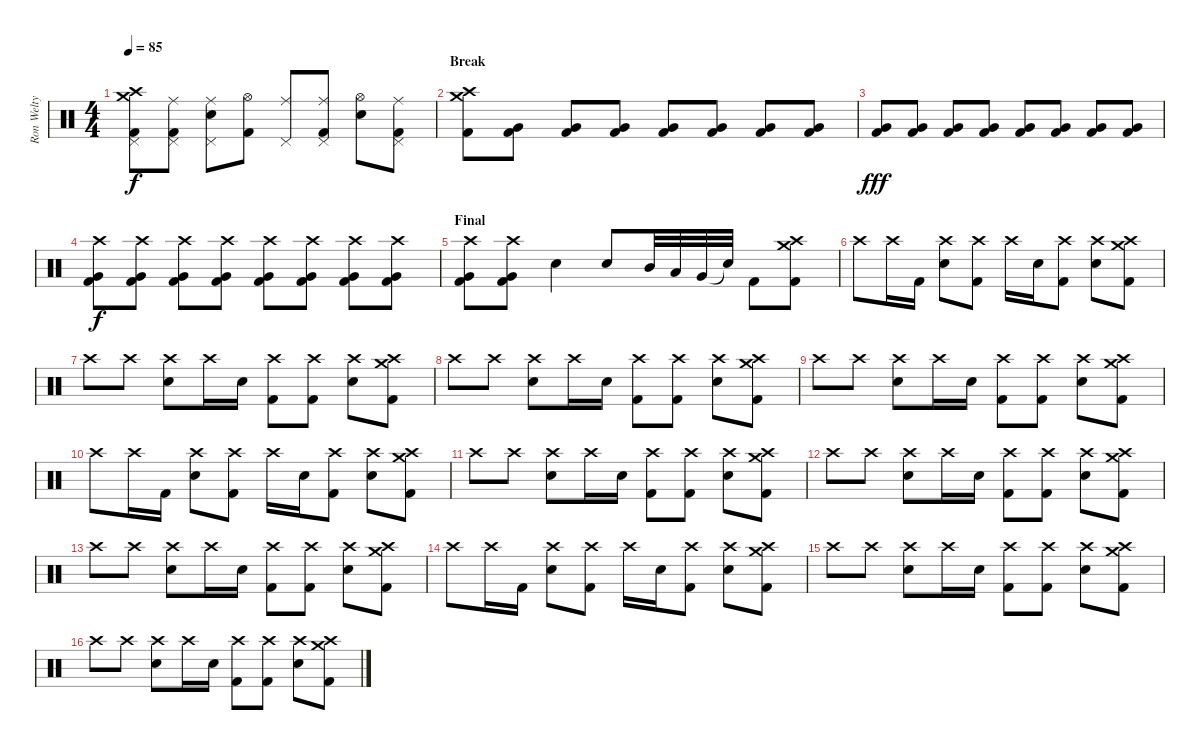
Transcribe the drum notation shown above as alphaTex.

\track ("Ron Welty - Drums" "Ron Welty ") {instrument percussion}
\staff {score}
\articulation defaults
\ts (4 4)
\tempo 85
\clef neutral
\ks c
("Crash medium (hit)" "Crash high (hit)" "Pedal Hi-Hat (hit)" "Kick (hit) 2").8{dy f} ("Ride (middle)" "Pedal Hi-Hat (hit)" "Kick (hit) 2").8 ("Ride (middle)" "Pedal Hi-Hat (hit)" "Snare (hit) 2").8 ("Hi-Hat (open)" "Kick (hit) 2").8 ("Ride (middle)" "Pedal Hi-Hat (hit)").8 ("Ride (middle)" "Pedal Hi-Hat (hit)" "Kick (hit) 2").8 ("Hi-Hat (open)" "Snare (hit) 2").8 ("Ride (middle)" "Pedal Hi-Hat (hit)" "Kick (hit) 2").8 |
\section ("" "Break")
("Crash high (hit)" "Crash medium (hit)" "Kick (hit) 2").8 ("Very Low Tom (hit)" "Kick (hit) 2").8 ("Very Low Tom (hit)" "Kick (hit) 2").8 ("Very Low Tom (hit)" "Kick (hit) 2").8 ("Very Low Tom (hit)" "Kick (hit) 2").8 ("Very Low Tom (hit)" "Kick (hit) 2").8 ("Very Low Tom (hit)" "Kick (hit) 2").8 ("Very Low Tom (hit)" "Kick (hit) 2").8 |
("Very Low Tom (hit)" "Kick (hit) 2").8{dy fff} ("Very Low Tom (hit)" "Kick (hit) 2").8 ("Very Low Tom (hit)" "Kick (hit) 2").8 ("Very Low Tom (hit)" "Kick (hit) 2").8 ("Very Low Tom (hit)" "Kick (hit) 2").8 ("Very Low Tom (hit)" "Kick (hit) 2").8 ("Very Low Tom (hit)" "Kick (hit) 2").8 ("Very Low Tom (hit)" "Kick (hit) 2").8 |
("Crash high (hit)" "Very Low Tom (hit)" "Kick (hit) 2").8{dy f} ("Crash high (hit)" "Very Low Tom (hit)" "Kick (hit) 2").8 ("Crash high (hit)" "Very Low Tom (hit)" "Kick (hit) 2").8 ("Crash high (hit)" "Very Low Tom (hit)" "Kick (hit) 2").8 ("Crash high (hit)" "Very Low Tom (hit)" "Kick (hit) 2").8 ("Crash high (hit)" "Very Low Tom (hit)" "Kick (hit) 2").8 ("Crash high (hit)" "Very Low Tom (hit)" "Kick (hit) 2").8 ("Crash high (hit)" "Very Low Tom (hit)" "Kick (hit) 2").8 |
\section ("" "Final")
("Crash high (hit)" "Very Low Tom (hit)" "Kick (hit) 2").8 ("Crash high (hit)" "Very Low Tom (hit)" "Kick (hit) 2").8 "Snare (hit) 2".4 "Snare (hit) 2".8 "Mid Tom (hit)".32 "Low Tom (hit)".32 "Very Low Tom (hit)".32 "Snare (hit)"{t}.32 "Kick (hit) 2".8 ("Crash high (hit)" "Crash medium (hit)" "Kick (hit) 2").8 |
"Crash high (hit)".8 "Crash high (hit)".16 "Kick (hit) 2".16 ("Crash high (hit)" "Snare (hit) 2").8 ("Crash high (hit)" "Kick (hit) 2").8 "Crash high (hit)".16 "Snare (hit) 2".16 ("Crash high (hit)" "Kick (hit) 2").8 ("Crash high (hit)" "Snare (hit) 2").8 ("Crash high (hit)" "Crash medium (hit)" "Kick (hit) 2").8 |
"Crash high (hit)".8 "Crash high (hit)".8 ("Crash high (hit)" "Snare (hit) 2").8 "Crash high (hit)".16 "Snare (hit) 2".16 ("Crash high (hit)" "Kick (hit) 2").8 ("Crash high (hit)" "Kick (hit) 2").8 ("Crash high (hit)" "Snare (hit) 2").8 ("Crash high (hit)" "Crash medium (hit)" "Kick (hit) 2").8 |
"Crash high (hit)".8 "Crash high (hit)".8 ("Crash high (hit)" "Snare (hit) 2").8 "Crash high (hit)".16 "Snare (hit) 2".16 ("Crash high (hit)" "Kick (hit) 2").8 ("Crash high (hit)" "Kick (hit) 2").8 ("Crash high (hit)" "Snare (hit) 2").8 ("Crash high (hit)" "Crash medium (hit)" "Kick (hit) 2").8 |
"Crash high (hit)".8 "Crash high (hit)".8 ("Crash high (hit)" "Snare (hit) 2").8 "Crash high (hit)".16 "Snare (hit) 2".16 ("Crash high (hit)" "Kick (hit) 2").8 ("Crash high (hit)" "Kick (hit) 2").8 ("Crash high (hit)" "Snare (hit) 2").8 ("Crash high (hit)" "Crash medium (hit)" "Kick (hit) 2").8 |
"Crash high (hit)".8 "Crash high (hit)".16 "Kick (hit) 2".16 ("Crash high (hit)" "Snare (hit) 2").8 ("Crash high (hit)" "Kick (hit) 2").8 "Crash high (hit)".16 "Snare (hit) 2".16 ("Crash high (hit)" "Kick (hit) 2").8 ("Crash high (hit)" "Snare (hit) 2").8 ("Crash high (hit)" "Crash medium (hit)" "Kick (hit) 2").8 |
"Crash high (hit)".8 "Crash high (hit)".8 ("Crash high (hit)" "Snare (hit) 2").8 "Crash high (hit)".16 "Snare (hit) 2".16 ("Crash high (hit)" "Kick (hit) 2").8 ("Crash high (hit)" "Kick (hit) 2").8 ("Crash high (hit)" "Snare (hit) 2").8 ("Crash high (hit)" "Crash medium (hit)" "Kick (hit) 2").8 |
"Crash high (hit)".8 "Crash high (hit)".8 ("Crash high (hit)" "Snare (hit) 2").8 "Crash high (hit)".16 "Snare (hit) 2".16 ("Crash high (hit)" "Kick (hit) 2").8 ("Crash high (hit)" "Kick (hit) 2").8 ("Crash high (hit)" "Snare (hit) 2").8 ("Crash high (hit)" "Crash medium (hit)" "Kick (hit) 2").8 |
"Crash high (hit)".8 "Crash high (hit)".8 ("Crash high (hit)" "Snare (hit) 2").8 "Crash high (hit)".16 "Snare (hit) 2".16 ("Crash high (hit)" "Kick (hit) 2").8 ("Crash high (hit)" "Kick (hit) 2").8 ("Crash high (hit)" "Snare (hit) 2").8 ("Crash high (hit)" "Crash medium (hit)" "Kick (hit) 2").8 |
"Crash high (hit)".8 "Crash high (hit)".16 "Kick (hit) 2".16 ("Crash high (hit)" "Snare (hit) 2").8 ("Crash high (hit)" "Kick (hit) 2").8 "Crash high (hit)".16 "Snare (hit) 2".16 ("Crash high (hit)" "Kick (hit) 2").8 ("Crash high (hit)" "Snare (hit) 2").8 ("Crash high (hit)" "Crash medium (hit)" "Kick (hit) 2").8 |
"Crash high (hit)".8 "Crash high (hit)".8 ("Crash high (hit)" "Snare (hit) 2").8 "Crash high (hit)".16 "Snare (hit) 2".16 ("Crash high (hit)" "Kick (hit) 2").8 ("Crash high (hit)" "Kick (hit) 2").8 ("Crash high (hit)" "Snare (hit) 2").8 ("Crash high (hit)" "Crash medium (hit)" "Kick (hit) 2").8 |
"Crash high (hit)".8 "Crash high (hit)".8 ("Crash high (hit)" "Snare (hit) 2").8 "Crash high (hit)".16 "Snare (hit) 2".16 ("Crash high (hit)" "Kick (hit) 2").8 ("Crash high (hit)" "Kick (hit) 2").8 ("Crash high (hit)" "Snare (hit) 2").8 ("Crash high (hit)" "Crash medium (hit)" "Kick (hit) 2").8
